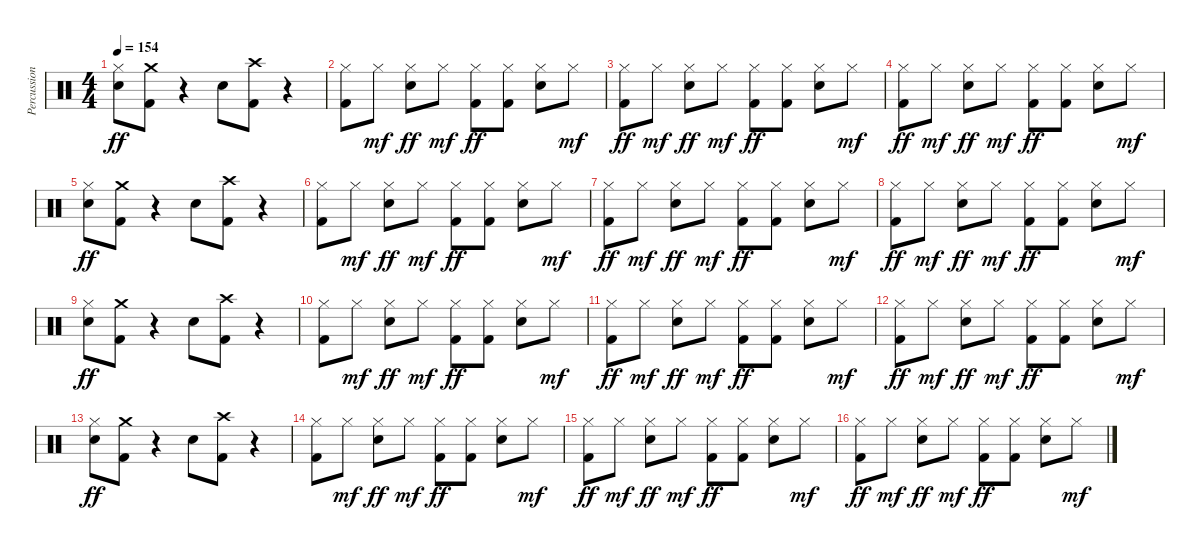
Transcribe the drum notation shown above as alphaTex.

\track ("Percussions" "Percussion") {instrument percussion}
\staff {score}
\articulation defaults
\ts (4 4)
\tempo 154
\clef neutral
\ks c
("Hi-Hat (closed)" "Electric Snare (hit)").8{dy ff} ("Crash medium (hit)" "Kick (hit) 2").8 r.4 "Electric Snare (hit)".8 ("Crash high (hit)" "Kick (hit) 2").8 r.4 |
("Hi-Hat (closed)" "Kick (hit) 2").8 "Hi-Hat (closed)".8{dy mf} ("Hi-Hat (closed)" "Electric Snare (hit)").8{dy ff} "Hi-Hat (closed)".8{dy mf} ("Hi-Hat (closed)" "Kick (hit) 2").8{dy ff} ("Hi-Hat (closed)" "Kick (hit) 2").8 ("Hi-Hat (closed)" "Electric Snare (hit)").8 "Hi-Hat (closed)".8{dy mf} |
("Hi-Hat (closed)" "Kick (hit) 2").8{dy ff} "Hi-Hat (closed)".8{dy mf} ("Hi-Hat (closed)" "Electric Snare (hit)").8{dy ff} "Hi-Hat (closed)".8{dy mf} ("Hi-Hat (closed)" "Kick (hit) 2").8{dy ff} ("Hi-Hat (closed)" "Kick (hit) 2").8 ("Hi-Hat (closed)" "Electric Snare (hit)").8 "Hi-Hat (closed)".8{dy mf} |
("Hi-Hat (closed)" "Kick (hit) 2").8{dy ff} "Hi-Hat (closed)".8{dy mf} ("Hi-Hat (closed)" "Electric Snare (hit)").8{dy ff} "Hi-Hat (closed)".8{dy mf} ("Hi-Hat (closed)" "Kick (hit) 2").8{dy ff} ("Hi-Hat (closed)" "Kick (hit) 2").8 ("Hi-Hat (closed)" "Electric Snare (hit)").8 "Hi-Hat (closed)".8{dy mf} |
("Hi-Hat (closed)" "Electric Snare (hit)").8{dy ff} ("Crash medium (hit)" "Kick (hit) 2").8 r.4 "Electric Snare (hit)".8 ("Crash high (hit)" "Kick (hit) 2").8 r.4 |
("Hi-Hat (closed)" "Kick (hit) 2").8 "Hi-Hat (closed)".8{dy mf} ("Hi-Hat (closed)" "Electric Snare (hit)").8{dy ff} "Hi-Hat (closed)".8{dy mf} ("Hi-Hat (closed)" "Kick (hit) 2").8{dy ff} ("Hi-Hat (closed)" "Kick (hit) 2").8 ("Hi-Hat (closed)" "Electric Snare (hit)").8 "Hi-Hat (closed)".8{dy mf} |
("Hi-Hat (closed)" "Kick (hit) 2").8{dy ff} "Hi-Hat (closed)".8{dy mf} ("Hi-Hat (closed)" "Electric Snare (hit)").8{dy ff} "Hi-Hat (closed)".8{dy mf} ("Hi-Hat (closed)" "Kick (hit) 2").8{dy ff} ("Hi-Hat (closed)" "Kick (hit) 2").8 ("Hi-Hat (closed)" "Electric Snare (hit)").8 "Hi-Hat (closed)".8{dy mf} |
("Hi-Hat (closed)" "Kick (hit) 2").8{dy ff} "Hi-Hat (closed)".8{dy mf} ("Hi-Hat (closed)" "Electric Snare (hit)").8{dy ff} "Hi-Hat (closed)".8{dy mf} ("Hi-Hat (closed)" "Kick (hit) 2").8{dy ff} ("Hi-Hat (closed)" "Kick (hit) 2").8 ("Hi-Hat (closed)" "Electric Snare (hit)").8 "Hi-Hat (closed)".8{dy mf} |
("Hi-Hat (closed)" "Electric Snare (hit)").8{dy ff} ("Crash medium (hit)" "Kick (hit) 2").8 r.4 "Electric Snare (hit)".8 ("Crash high (hit)" "Kick (hit) 2").8 r.4 |
("Hi-Hat (closed)" "Kick (hit) 2").8 "Hi-Hat (closed)".8{dy mf} ("Hi-Hat (closed)" "Electric Snare (hit)").8{dy ff} "Hi-Hat (closed)".8{dy mf} ("Hi-Hat (closed)" "Kick (hit) 2").8{dy ff} ("Hi-Hat (closed)" "Kick (hit) 2").8 ("Hi-Hat (closed)" "Electric Snare (hit)").8 "Hi-Hat (closed)".8{dy mf} |
("Hi-Hat (closed)" "Kick (hit) 2").8{dy ff} "Hi-Hat (closed)".8{dy mf} ("Hi-Hat (closed)" "Electric Snare (hit)").8{dy ff} "Hi-Hat (closed)".8{dy mf} ("Hi-Hat (closed)" "Kick (hit) 2").8{dy ff} ("Hi-Hat (closed)" "Kick (hit) 2").8 ("Hi-Hat (closed)" "Electric Snare (hit)").8 "Hi-Hat (closed)".8{dy mf} |
("Hi-Hat (closed)" "Kick (hit) 2").8{dy ff} "Hi-Hat (closed)".8{dy mf} ("Hi-Hat (closed)" "Electric Snare (hit)").8{dy ff} "Hi-Hat (closed)".8{dy mf} ("Hi-Hat (closed)" "Kick (hit) 2").8{dy ff} ("Hi-Hat (closed)" "Kick (hit) 2").8 ("Hi-Hat (closed)" "Electric Snare (hit)").8 "Hi-Hat (closed)".8{dy mf} |
("Hi-Hat (closed)" "Electric Snare (hit)").8{dy ff} ("Crash medium (hit)" "Kick (hit) 2").8 r.4 "Electric Snare (hit)".8 ("Crash high (hit)" "Kick (hit) 2").8 r.4 |
("Hi-Hat (closed)" "Kick (hit) 2").8 "Hi-Hat (closed)".8{dy mf} ("Hi-Hat (closed)" "Electric Snare (hit)").8{dy ff} "Hi-Hat (closed)".8{dy mf} ("Hi-Hat (closed)" "Kick (hit) 2").8{dy ff} ("Hi-Hat (closed)" "Kick (hit) 2").8 ("Hi-Hat (closed)" "Electric Snare (hit)").8 "Hi-Hat (closed)".8{dy mf} |
("Hi-Hat (closed)" "Kick (hit) 2").8{dy ff} "Hi-Hat (closed)".8{dy mf} ("Hi-Hat (closed)" "Electric Snare (hit)").8{dy ff} "Hi-Hat (closed)".8{dy mf} ("Hi-Hat (closed)" "Kick (hit) 2").8{dy ff} ("Hi-Hat (closed)" "Kick (hit) 2").8 ("Hi-Hat (closed)" "Electric Snare (hit)").8 "Hi-Hat (closed)".8{dy mf} |
("Hi-Hat (closed)" "Kick (hit) 2").8{dy ff} "Hi-Hat (closed)".8{dy mf} ("Hi-Hat (closed)" "Electric Snare (hit)").8{dy ff} "Hi-Hat (closed)".8{dy mf} ("Hi-Hat (closed)" "Kick (hit) 2").8{dy ff} ("Hi-Hat (closed)" "Kick (hit) 2").8 ("Hi-Hat (closed)" "Electric Snare (hit)").8 "Hi-Hat (closed)".8{dy mf}
